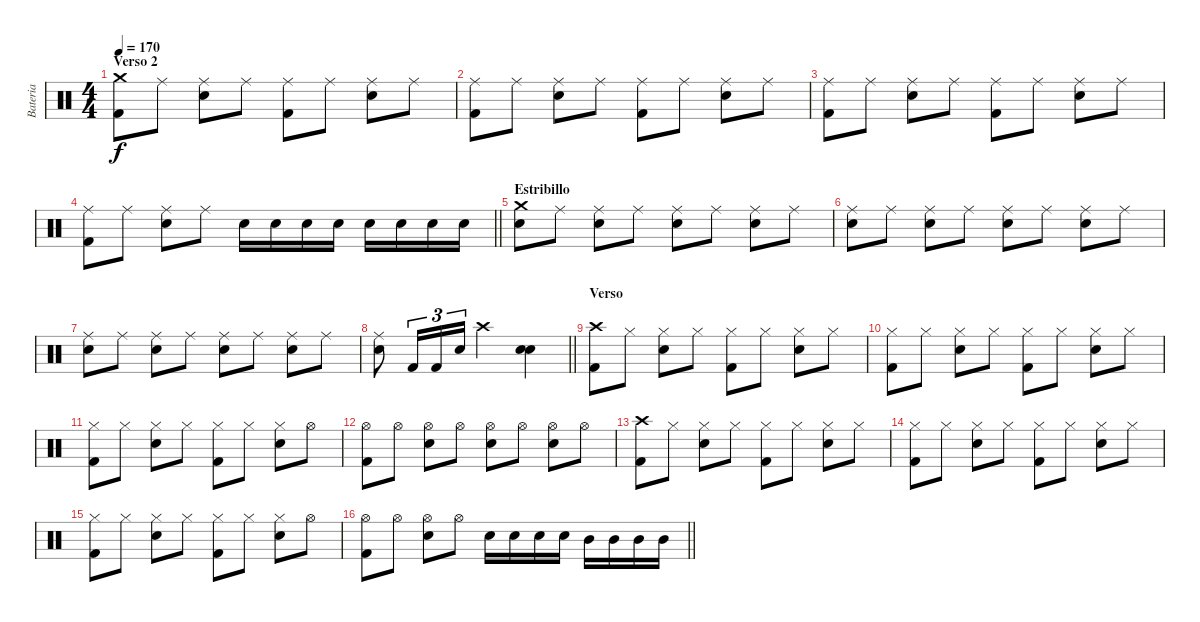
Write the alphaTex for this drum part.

\track ("Bateria" "Bateria") {instrument percussion}
\staff {score}
\articulation defaults
\ts (4 4)
\section ("" "Verso 2")
\tempo 170
\clef neutral
\ks c
("Crash medium (hit)" "Kick (hit) 2").8{dy f} "Ride (middle)".8 ("Ride (middle)" "Snare (hit) 2").8 "Ride (middle)".8 ("Ride (middle)" "Kick (hit) 2").8 "Ride (middle)".8 ("Ride (middle)" "Snare (hit) 2").8 "Ride (middle)".8 |
("Ride (middle)" "Kick (hit) 2").8 "Ride (middle)".8 ("Ride (middle)" "Snare (hit) 2").8 "Ride (middle)".8 ("Ride (middle)" "Kick (hit) 2").8 "Ride (middle)".8 ("Ride (middle)" "Snare (hit) 2").8 "Ride (middle)".8 |
("Ride (middle)" "Kick (hit) 2").8 "Ride (middle)".8 ("Ride (middle)" "Snare (hit) 2").8 "Ride (middle)".8 ("Ride (middle)" "Kick (hit) 2").8 "Ride (middle)".8 ("Ride (middle)" "Snare (hit) 2").8 "Ride (middle)".8 |
\barLineRight lightlight
("Ride (middle)" "Kick (hit) 2").8 "Ride (middle)".8 ("Ride (middle)" "Snare (hit) 2").8 "Ride (middle)".8 "Snare (hit) 2".16 "Snare (hit) 2".16 "Snare (hit) 2".16 "Snare (hit) 2".16 "Snare (hit) 2".16 "Snare (hit) 2".16 "Snare (hit) 2".16 "Snare (hit) 2".16 |
\section ("" "Estribillo")
("Crash medium (hit)" "Snare (hit) 2").8 "Ride (middle)".8 ("Ride (middle)" "Snare (hit) 2").8 "Ride (middle)".8 ("Ride (middle)" "Snare (hit) 2").8 "Ride (middle)".8 ("Ride (middle)" "Snare (hit) 2").8 "Ride (middle)".8 |
("Ride (middle)" "Snare (hit) 2").8 "Ride (middle)".8 ("Ride (middle)" "Snare (hit) 2").8 "Ride (middle)".8 ("Ride (middle)" "Snare (hit) 2").8 "Ride (middle)".8 ("Ride (middle)" "Snare (hit) 2").8 "Ride (middle)".8 |
("Ride (middle)" "Snare (hit) 2").8 "Ride (middle)".8 ("Ride (middle)" "Snare (hit) 2").8 "Ride (middle)".8 ("Ride (middle)" "Snare (hit) 2").8 "Ride (middle)".8 ("Ride (middle)" "Snare (hit) 2").8 "Ride (middle)".8 |
\barLineRight lightlight
("Ride (middle)" "Snare (hit) 2").8 "Kick (hit) 2".16{tu (3 2)} "Kick (hit) 2".16{tu (3 2)} "Snare (hit) 2".16{tu (3 2)} "Crash high (hit)".2 ("Snare (hit) 2" "Snare (hit) 2").4 |
\section ("" "Verso")
("Crash high (hit)" "Kick (hit) 2").8 "Hi-Hat (closed)".8 ("Hi-Hat (closed)" "Snare (hit) 2").8 "Hi-Hat (closed)".8 ("Hi-Hat (closed)" "Kick (hit) 2").8 "Hi-Hat (closed)".8 ("Hi-Hat (closed)" "Snare (hit) 2").8 "Hi-Hat (closed)".8 |
("Hi-Hat (closed)" "Kick (hit) 2").8 "Hi-Hat (closed)".8 ("Hi-Hat (closed)" "Snare (hit) 2").8 "Hi-Hat (closed)".8 ("Hi-Hat (closed)" "Kick (hit) 2").8 "Hi-Hat (closed)".8 ("Hi-Hat (closed)" "Snare (hit) 2").8 "Hi-Hat (closed)".8 |
("Hi-Hat (closed)" "Kick (hit) 2").8 "Hi-Hat (closed)".8 ("Hi-Hat (closed)" "Snare (hit) 2").8 "Hi-Hat (closed)".8 ("Hi-Hat (closed)" "Kick (hit) 2").8 "Hi-Hat (closed)".8 ("Hi-Hat (closed)" "Snare (hit) 2").8 "Hi-Hat (open)".8 |
("Hi-Hat (open)" "Kick (hit) 2").8 "Hi-Hat (open)".8 ("Hi-Hat (open)" "Snare (hit) 2").8 "Hi-Hat (open)".8 ("Hi-Hat (open)" "Snare (hit) 2").8 "Hi-Hat (open)".8 ("Hi-Hat (open)" "Snare (hit) 2").8 "Hi-Hat (open)".8 |
("Crash high (hit)" "Kick (hit) 2").8 "Hi-Hat (closed)".8 ("Hi-Hat (closed)" "Snare (hit) 2").8 "Hi-Hat (closed)".8 ("Hi-Hat (closed)" "Kick (hit) 2").8 "Hi-Hat (closed)".8 ("Hi-Hat (closed)" "Snare (hit) 2").8 "Hi-Hat (closed)".8 |
("Hi-Hat (closed)" "Kick (hit) 2").8 "Hi-Hat (closed)".8 ("Hi-Hat (closed)" "Snare (hit) 2").8 "Hi-Hat (closed)".8 ("Hi-Hat (closed)" "Kick (hit) 2").8 "Hi-Hat (closed)".8 ("Hi-Hat (closed)" "Snare (hit) 2").8 "Hi-Hat (closed)".8 |
("Hi-Hat (closed)" "Kick (hit) 2").8 "Hi-Hat (closed)".8 ("Hi-Hat (closed)" "Snare (hit) 2").8 "Hi-Hat (closed)".8 ("Hi-Hat (closed)" "Kick (hit) 2").8 "Hi-Hat (closed)".8 ("Hi-Hat (closed)" "Snare (hit) 2").8 "Hi-Hat (open)".8 |
\barLineRight lightlight
("Hi-Hat (open)" "Kick (hit) 2").8 "Hi-Hat (open)".8 ("Hi-Hat (open)" "Snare (hit) 2").8 "Hi-Hat (open)".8 "Snare (hit) 2".16 "Snare (hit) 2".16 "Snare (hit) 2".16 "Snare (hit) 2".16 "Mid Tom (hit)".16 "Mid Tom (hit)".16 "Mid Tom (hit)".16 "Mid Tom (hit)".16
